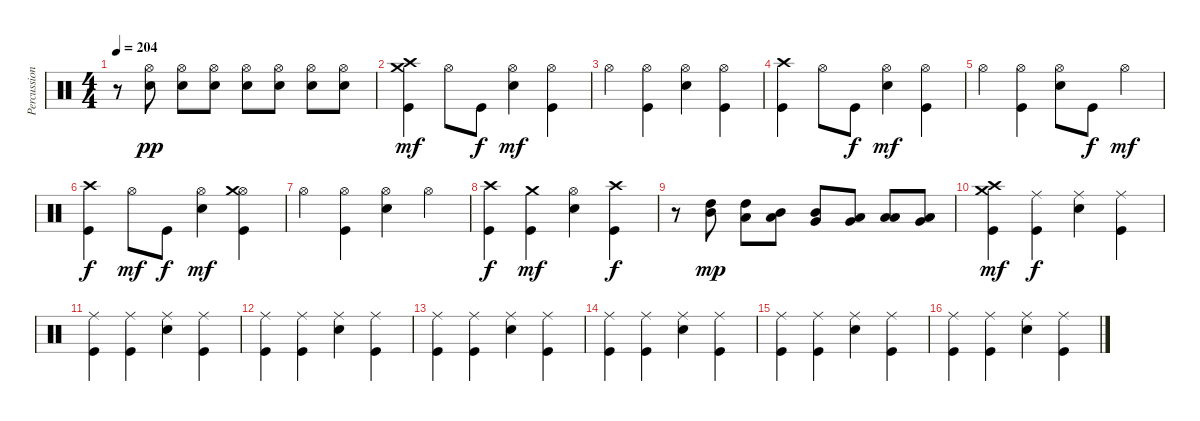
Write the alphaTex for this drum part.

\track ("Percussions" "Percussion") {instrument percussion}
\staff {score}
\articulation defaults
\ts (4 4)
\tempo 204
\clef neutral
\ks c
r.8{dy f} ("Electric Snare (hit)" "Hi-Hat (open)").8{dy pp} ("Electric Snare (hit)" "Hi-Hat (open)").8 ("Electric Snare (hit)" "Hi-Hat (open)").8 ("Electric Snare (hit)" "Hi-Hat (open)").8 ("Electric Snare (hit)" "Hi-Hat (open)").8 ("Electric Snare (hit)" "Hi-Hat (open)").8 ("Electric Snare (hit)" "Hi-Hat (open)").8 |
("Kick (hit)" "Crash high (hit)" "Crash medium (hit)").4{dy mf} "Hi-Hat (open)".8 "Kick (hit)".8{dy f} ("Electric Snare (hit)" "Hi-Hat (open)").4{dy mf} ("Kick (hit)" "Hi-Hat (open)").4 |
"Hi-Hat (open)".4 ("Kick (hit)" "Hi-Hat (open)").4 ("Electric Snare (hit)" "Hi-Hat (open)").4 ("Kick (hit)" "Hi-Hat (open)").4 |
("Kick (hit)" "Crash high (hit)").4 "Hi-Hat (open)".8 "Kick (hit)".8{dy f} ("Electric Snare (hit)" "Hi-Hat (open)").4{dy mf} ("Kick (hit)" "Hi-Hat (open)").4 |
"Hi-Hat (open)".4 ("Kick (hit)" "Hi-Hat (open)").4 ("Electric Snare (hit)" "Hi-Hat (open)").8 "Kick (hit)".8{dy f} "Hi-Hat (open)".4{dy mf} |
("Kick (hit)" "Crash high (hit)").4{dy f} "Hi-Hat (open)".8{dy mf} "Kick (hit)".8{dy f} ("Electric Snare (hit)" "Hi-Hat (open)").4{dy mf} ("Kick (hit)" "Hi-Hat (open)" "Crash medium (hit)").4 |
"Hi-Hat (open)".4 ("Kick (hit)" "Hi-Hat (open)").4 ("Electric Snare (hit)" "Hi-Hat (open)").4 "Hi-Hat (open)".4 |
("Kick (hit)" "Crash high (hit)").4{dy f} ("Kick (hit)" "Crash medium (hit)").4{dy mf} ("Electric Snare (hit)" "Hi-Hat (open)").4 ("Kick (hit)" "Crash high (hit)").4{dy f} |
r.8 ("Mid Tom (hit)" "High Tom (hit)").8{dy mp} ("Low Tom (hit)" "High Tom (hit)").8 ("Low Tom (hit)" "Mid Tom (hit)").8 ("Very Low Tom (hit)" "Mid Tom (hit)").8 ("Very Low Tom (hit)" "Low Tom (hit)").8 ("Low Floor Tom (hit)" "Low Tom (hit)").8 ("Low Floor Tom (hit)" "Very Low Tom (hit)").8 |
("Kick (hit)" "Crash high (hit)" "Crash medium (hit)").4{dy mf} ("Kick (hit)" "Ride (middle)").4{dy f} ("Electric Snare (hit)" "Ride (middle)").4 ("Kick (hit)" "Ride (middle)").4 |
("Kick (hit)" "Ride (middle)").4 ("Kick (hit)" "Ride (middle)").4 ("Electric Snare (hit)" "Ride (middle)").4 ("Kick (hit)" "Ride (middle)").4 |
("Kick (hit)" "Ride (middle)").4 ("Kick (hit)" "Ride (middle)").4 ("Electric Snare (hit)" "Ride (middle)").4 ("Kick (hit)" "Ride (middle)").4 |
("Kick (hit)" "Ride (middle)").4 ("Kick (hit)" "Ride (middle)").4 ("Electric Snare (hit)" "Ride (middle)").4 ("Kick (hit)" "Ride (middle)").4 |
("Kick (hit)" "Ride (middle)").4 ("Kick (hit)" "Ride (middle)").4 ("Electric Snare (hit)" "Ride (middle)").4 ("Kick (hit)" "Ride (middle)").4 |
("Kick (hit)" "Ride (middle)").4 ("Kick (hit)" "Ride (middle)").4 ("Electric Snare (hit)" "Ride (middle)").4 ("Kick (hit)" "Ride (middle)").4 |
("Kick (hit)" "Ride (middle)").4 ("Kick (hit)" "Ride (middle)").4 ("Electric Snare (hit)" "Ride (middle)").4 ("Kick (hit)" "Ride (middle)").4
